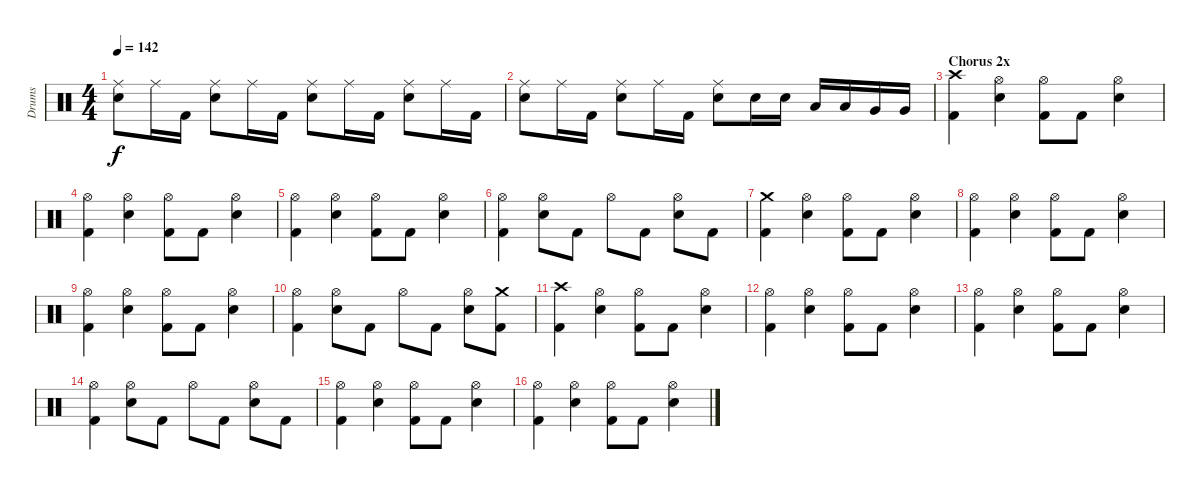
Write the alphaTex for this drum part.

\track ("Drums" "Drums") {instrument percussion}
\staff {score}
\articulation defaults
\ts (4 4)
\tempo 142
\clef neutral
\ks c
("Ride (middle)" "Electric Snare (hit)").8{dy f} "Ride (middle)".16 "Kick (hit) 2".16 ("Ride (middle)" "Electric Snare (hit)").8 "Ride (middle)".16 "Kick (hit) 2".16 ("Ride (middle)" "Electric Snare (hit)").8 "Ride (middle)".16 "Kick (hit) 2".16 ("Ride (middle)" "Electric Snare (hit)").8 "Ride (middle)".16 "Kick (hit) 2".16 |
("Ride (middle)" "Electric Snare (hit)").8 "Ride (middle)".16 "Kick (hit) 2".16 ("Ride (middle)" "Electric Snare (hit)").8 "Ride (middle)".16 "Kick (hit) 2".16 ("Ride (middle)" "Electric Snare (hit)").8 "Electric Snare (hit)".16 "Electric Snare (hit)".16 "Low Tom (hit)".16 "Low Tom (hit)".16 "Very Low Tom (hit)".16 "Very Low Tom (hit)".16 |
\section ("" "Chorus 2x")
("Crash high (hit)" "Kick (hit) 2").4 ("Hi-Hat (open)" "Electric Snare (hit)").4 ("Hi-Hat (open)" "Kick (hit) 2").8 "Kick (hit) 2".8 ("Hi-Hat (open)" "Electric Snare (hit)").4 |
("Hi-Hat (open)" "Kick (hit) 2").4 ("Hi-Hat (open)" "Electric Snare (hit)").4 ("Hi-Hat (open)" "Kick (hit) 2").8 "Kick (hit) 2".8 ("Hi-Hat (open)" "Electric Snare (hit)").4 |
("Hi-Hat (open)" "Kick (hit) 2").4 ("Hi-Hat (open)" "Electric Snare (hit)").4 ("Hi-Hat (open)" "Kick (hit) 2").8 "Kick (hit) 2".8 ("Hi-Hat (open)" "Electric Snare (hit)").4 |
("Hi-Hat (open)" "Kick (hit) 2").4 ("Hi-Hat (open)" "Electric Snare (hit)").8 "Kick (hit) 2".8 "Hi-Hat (open)".8 "Kick (hit) 2".8 ("Hi-Hat (open)" "Electric Snare (hit)").8 "Kick (hit) 2".8 |
("Crash medium (hit)" "Kick (hit) 2").4 ("Hi-Hat (open)" "Electric Snare (hit)").4 ("Hi-Hat (open)" "Kick (hit) 2").8 "Kick (hit) 2".8 ("Hi-Hat (open)" "Electric Snare (hit)").4 |
("Hi-Hat (open)" "Kick (hit) 2").4 ("Hi-Hat (open)" "Electric Snare (hit)").4 ("Hi-Hat (open)" "Kick (hit) 2").8 "Kick (hit) 2".8 ("Hi-Hat (open)" "Electric Snare (hit)").4 |
("Hi-Hat (open)" "Kick (hit) 2").4 ("Hi-Hat (open)" "Electric Snare (hit)").4 ("Hi-Hat (open)" "Kick (hit) 2").8 "Kick (hit) 2".8 ("Hi-Hat (open)" "Electric Snare (hit)").4 |
("Hi-Hat (open)" "Kick (hit) 2").4 ("Hi-Hat (open)" "Electric Snare (hit)").8 "Kick (hit) 2".8 "Hi-Hat (open)".8 "Kick (hit) 2".8 ("Hi-Hat (open)" "Electric Snare (hit)").8 ("Crash medium (hit)" "Kick (hit) 2").8 |
("Crash high (hit)" "Kick (hit) 2").4 ("Hi-Hat (open)" "Electric Snare (hit)").4 ("Hi-Hat (open)" "Kick (hit) 2").8 "Kick (hit) 2".8 ("Hi-Hat (open)" "Electric Snare (hit)").4 |
("Hi-Hat (open)" "Kick (hit) 2").4 ("Hi-Hat (open)" "Electric Snare (hit)").4 ("Hi-Hat (open)" "Kick (hit) 2").8 "Kick (hit) 2".8 ("Hi-Hat (open)" "Electric Snare (hit)").4 |
("Hi-Hat (open)" "Kick (hit) 2").4 ("Hi-Hat (open)" "Electric Snare (hit)").4 ("Hi-Hat (open)" "Kick (hit) 2").8 "Kick (hit) 2".8 ("Hi-Hat (open)" "Electric Snare (hit)").4 |
("Hi-Hat (open)" "Kick (hit) 2").4 ("Hi-Hat (open)" "Electric Snare (hit)").8 "Kick (hit) 2".8 "Hi-Hat (open)".8 "Kick (hit) 2".8 ("Hi-Hat (open)" "Electric Snare (hit)").8 "Kick (hit) 2".8 |
("Hi-Hat (open)" "Kick (hit) 2").4 ("Hi-Hat (open)" "Electric Snare (hit)").4 ("Hi-Hat (open)" "Kick (hit) 2").8 "Kick (hit) 2".8 ("Hi-Hat (open)" "Electric Snare (hit)").4 |
("Hi-Hat (open)" "Kick (hit) 2").4 ("Hi-Hat (open)" "Electric Snare (hit)").4 ("Hi-Hat (open)" "Kick (hit) 2").8 "Kick (hit) 2".8 ("Hi-Hat (open)" "Electric Snare (hit)").4
